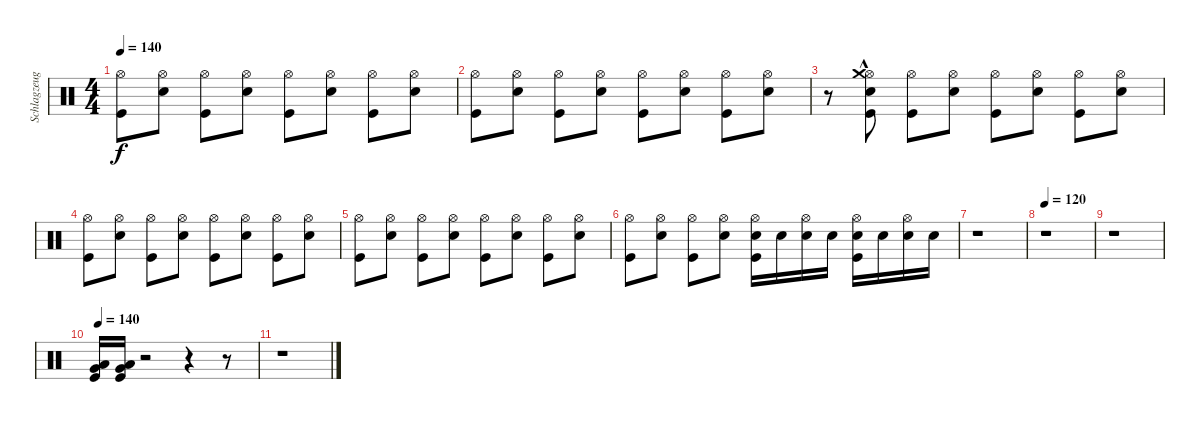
\track ("Schlagzeug - Bela B." "Schlagzeug") {instrument percussion}
\staff {score}
\articulation defaults
\ts (4 4)
\tempo 140
\clef neutral
\ks c
("Kick (hit)" "Hi-Hat (open)").8{dy f} ("Hi-Hat (open)" "Electric Snare (hit)").8 ("Hi-Hat (open)" "Kick (hit)").8 ("Hi-Hat (open)" "Electric Snare (hit)").8 ("Kick (hit)" "Hi-Hat (open)").8 ("Hi-Hat (open)" "Electric Snare (hit)").8 ("Hi-Hat (open)" "Kick (hit)").8 ("Hi-Hat (open)" "Electric Snare (hit)").8 |
("Kick (hit)" "Hi-Hat (open)").8 ("Hi-Hat (open)" "Electric Snare (hit)").8 ("Hi-Hat (open)" "Kick (hit)").8 ("Hi-Hat (open)" "Electric Snare (hit)").8 ("Kick (hit)" "Hi-Hat (open)").8 ("Hi-Hat (open)" "Electric Snare (hit)").8 ("Hi-Hat (open)" "Kick (hit)").8 ("Hi-Hat (open)" "Electric Snare (hit)").8 |
r.8 ("Hi-Hat (open)" "Electric Snare (hit)" "Crash medium (hit)"{hac} "Kick (hit)").8 ("Hi-Hat (open)" "Kick (hit)").8 ("Hi-Hat (open)" "Electric Snare (hit)").8 ("Kick (hit)" "Hi-Hat (open)").8 ("Hi-Hat (open)" "Electric Snare (hit)").8 ("Hi-Hat (open)" "Kick (hit)").8 ("Hi-Hat (open)" "Electric Snare (hit)").8 |
("Kick (hit)" "Hi-Hat (open)").8 ("Hi-Hat (open)" "Electric Snare (hit)").8 ("Hi-Hat (open)" "Kick (hit)").8 ("Hi-Hat (open)" "Electric Snare (hit)").8 ("Kick (hit)" "Hi-Hat (open)").8 ("Hi-Hat (open)" "Electric Snare (hit)").8 ("Hi-Hat (open)" "Kick (hit)").8 ("Hi-Hat (open)" "Electric Snare (hit)").8 |
("Kick (hit)" "Hi-Hat (open)").8 ("Hi-Hat (open)" "Electric Snare (hit)").8 ("Hi-Hat (open)" "Kick (hit)").8 ("Hi-Hat (open)" "Electric Snare (hit)").8 ("Kick (hit)" "Hi-Hat (open)").8 ("Hi-Hat (open)" "Electric Snare (hit)").8 ("Hi-Hat (open)" "Kick (hit)").8 ("Hi-Hat (open)" "Electric Snare (hit)").8 |
("Kick (hit)" "Hi-Hat (open)").8 ("Hi-Hat (open)" "Electric Snare (hit)").8 ("Hi-Hat (open)" "Kick (hit)").8 ("Hi-Hat (open)" "Electric Snare (hit)").8 ("Kick (hit)" "Hi-Hat (open)" "Electric Snare (hit)").16 "Electric Snare (hit)".16 ("Hi-Hat (open)" "Electric Snare (hit)").16 "Electric Snare (hit)".16 ("Hi-Hat (open)" "Kick (hit)" "Electric Snare (hit)").16 "Electric Snare (hit)".16 ("Hi-Hat (open)" "Electric Snare (hit)").16 "Electric Snare (hit)".16 |
r.1 |
\tempo 120
r.1 |
r.1 |
\tempo 140
("Kick (hit)" "Low Floor Tom (hit)" "Very Low Tom (hit)").16 ("Kick (hit)" "Low Floor Tom (hit)" "Very Low Tom (hit)").16 r.2 r.4 r.8 |
r.1
